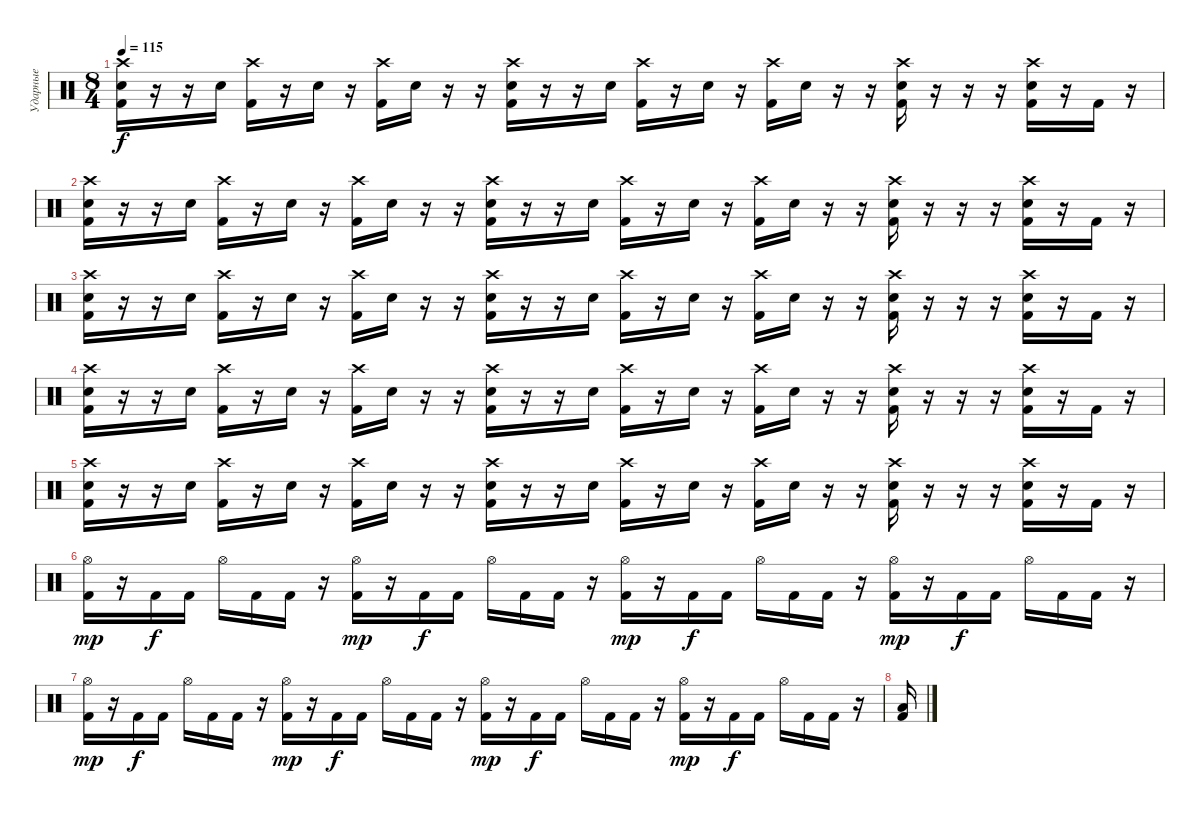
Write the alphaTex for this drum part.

\track ("Ударные" "Ударные") {instrument percussion}
\staff {score}
\articulation defaults
\ts (8 4)
\tempo 115
\clef neutral
\ks c
("Crash high (hit)" "Kick (hit) 2" "Snare (hit) 2").16{dy f} r.16 r.16 "Snare (hit) 2".16 ("Crash high (hit)" "Kick (hit) 2").16 r.16 "Snare (hit) 2".16 r.16 ("Crash high (hit)" "Kick (hit) 2").16 "Snare (hit) 2".16 r.16 r.16 ("Crash high (hit)" "Kick (hit) 2" "Snare (hit) 2").16 r.16 r.16 "Snare (hit) 2".16 ("Crash high (hit)" "Kick (hit) 2").16 r.16 "Snare (hit) 2".16 r.16 ("Crash high (hit)" "Kick (hit) 2").16 "Snare (hit) 2".16 r.16 r.16 ("Crash high (hit)" "Kick (hit) 2" "Snare (hit) 2").16 r.16 r.16 r.16 ("Crash high (hit)" "Kick (hit) 2" "Snare (hit) 2").16 r.16 "Kick (hit) 2".16 r.16 |
("Crash high (hit)" "Kick (hit) 2" "Snare (hit) 2").16 r.16 r.16 "Snare (hit) 2".16 ("Crash high (hit)" "Kick (hit) 2").16 r.16 "Snare (hit) 2".16 r.16 ("Crash high (hit)" "Kick (hit) 2").16 "Snare (hit) 2".16 r.16 r.16 ("Crash high (hit)" "Kick (hit) 2" "Snare (hit) 2").16 r.16 r.16 "Snare (hit) 2".16 ("Crash high (hit)" "Kick (hit) 2").16 r.16 "Snare (hit) 2".16 r.16 ("Crash high (hit)" "Kick (hit) 2").16 "Snare (hit) 2".16 r.16 r.16 ("Crash high (hit)" "Kick (hit) 2" "Snare (hit) 2").16 r.16 r.16 r.16 ("Crash high (hit)" "Kick (hit) 2" "Snare (hit) 2").16 r.16 "Kick (hit) 2".16 r.16 |
("Crash high (hit)" "Kick (hit) 2" "Snare (hit) 2").16 r.16 r.16 "Snare (hit) 2".16 ("Crash high (hit)" "Kick (hit) 2").16 r.16 "Snare (hit) 2".16 r.16 ("Crash high (hit)" "Kick (hit) 2").16 "Snare (hit) 2".16 r.16 r.16 ("Crash high (hit)" "Kick (hit) 2" "Snare (hit) 2").16 r.16 r.16 "Snare (hit) 2".16 ("Crash high (hit)" "Kick (hit) 2").16 r.16 "Snare (hit) 2".16 r.16 ("Crash high (hit)" "Kick (hit) 2").16 "Snare (hit) 2".16 r.16 r.16 ("Crash high (hit)" "Kick (hit) 2" "Snare (hit) 2").16 r.16 r.16 r.16 ("Crash high (hit)" "Kick (hit) 2" "Snare (hit) 2").16 r.16 "Kick (hit) 2".16 r.16 |
("Crash high (hit)" "Kick (hit) 2" "Snare (hit) 2").16 r.16 r.16 "Snare (hit) 2".16 ("Crash high (hit)" "Kick (hit) 2").16 r.16 "Snare (hit) 2".16 r.16 ("Crash high (hit)" "Kick (hit) 2").16 "Snare (hit) 2".16 r.16 r.16 ("Crash high (hit)" "Kick (hit) 2" "Snare (hit) 2").16 r.16 r.16 "Snare (hit) 2".16 ("Crash high (hit)" "Kick (hit) 2").16 r.16 "Snare (hit) 2".16 r.16 ("Crash high (hit)" "Kick (hit) 2").16 "Snare (hit) 2".16 r.16 r.16 ("Crash high (hit)" "Kick (hit) 2" "Snare (hit) 2").16 r.16 r.16 r.16 ("Crash high (hit)" "Kick (hit) 2" "Snare (hit) 2").16 r.16 "Kick (hit) 2".16 r.16 |
("Crash high (hit)" "Kick (hit) 2" "Snare (hit) 2").16 r.16 r.16 "Snare (hit) 2".16 ("Crash high (hit)" "Kick (hit) 2").16 r.16 "Snare (hit) 2".16 r.16 ("Crash high (hit)" "Kick (hit) 2").16 "Snare (hit) 2".16 r.16 r.16 ("Crash high (hit)" "Kick (hit) 2" "Snare (hit) 2").16 r.16 r.16 "Snare (hit) 2".16 ("Crash high (hit)" "Kick (hit) 2").16 r.16 "Snare (hit) 2".16 r.16 ("Crash high (hit)" "Kick (hit) 2").16 "Snare (hit) 2".16 r.16 r.16 ("Crash high (hit)" "Kick (hit) 2" "Snare (hit) 2").16 r.16 r.16 r.16 ("Crash high (hit)" "Kick (hit) 2" "Snare (hit) 2").16 r.16 "Kick (hit) 2".16 r.16 |
("Hi-Hat (open)" "Kick (hit) 2").16{dy mp} r.16 "Kick (hit) 2".16{dy f} "Kick (hit) 2".16 "Hi-Hat (open)".16 "Kick (hit) 2".16 "Kick (hit) 2".16 r.16 ("Hi-Hat (open)" "Kick (hit) 2").16{dy mp} r.16 "Kick (hit) 2".16{dy f} "Kick (hit) 2".16 "Hi-Hat (open)".16 "Kick (hit) 2".16 "Kick (hit) 2".16 r.16 ("Hi-Hat (open)" "Kick (hit) 2").16{dy mp} r.16 "Kick (hit) 2".16{dy f} "Kick (hit) 2".16 "Hi-Hat (open)".16 "Kick (hit) 2".16 "Kick (hit) 2".16 r.16 ("Hi-Hat (open)" "Kick (hit) 2").16{dy mp} r.16 "Kick (hit) 2".16{dy f} "Kick (hit) 2".16 "Hi-Hat (open)".16 "Kick (hit) 2".16 "Kick (hit) 2".16 r.16 |
("Hi-Hat (open)" "Kick (hit) 2").16{dy mp} r.16 "Kick (hit) 2".16{dy f} "Kick (hit) 2".16 "Hi-Hat (open)".16 "Kick (hit) 2".16 "Kick (hit) 2".16 r.16 ("Hi-Hat (open)" "Kick (hit) 2").16{dy mp} r.16 "Kick (hit) 2".16{dy f} "Kick (hit) 2".16 "Hi-Hat (open)".16 "Kick (hit) 2".16 "Kick (hit) 2".16 r.16 ("Hi-Hat (open)" "Kick (hit) 2").16{dy mp} r.16 "Kick (hit) 2".16{dy f} "Kick (hit) 2".16 "Hi-Hat (open)".16 "Kick (hit) 2".16 "Kick (hit) 2".16 r.16 ("Hi-Hat (open)" "Kick (hit) 2").16{dy mp} r.16 "Kick (hit) 2".16{dy f} "Kick (hit) 2".16 "Hi-Hat (open)".16 "Kick (hit) 2".16 "Kick (hit) 2".16 r.16 |
("Low Floor Tom (hit)" "Kick (hit) 2").16
